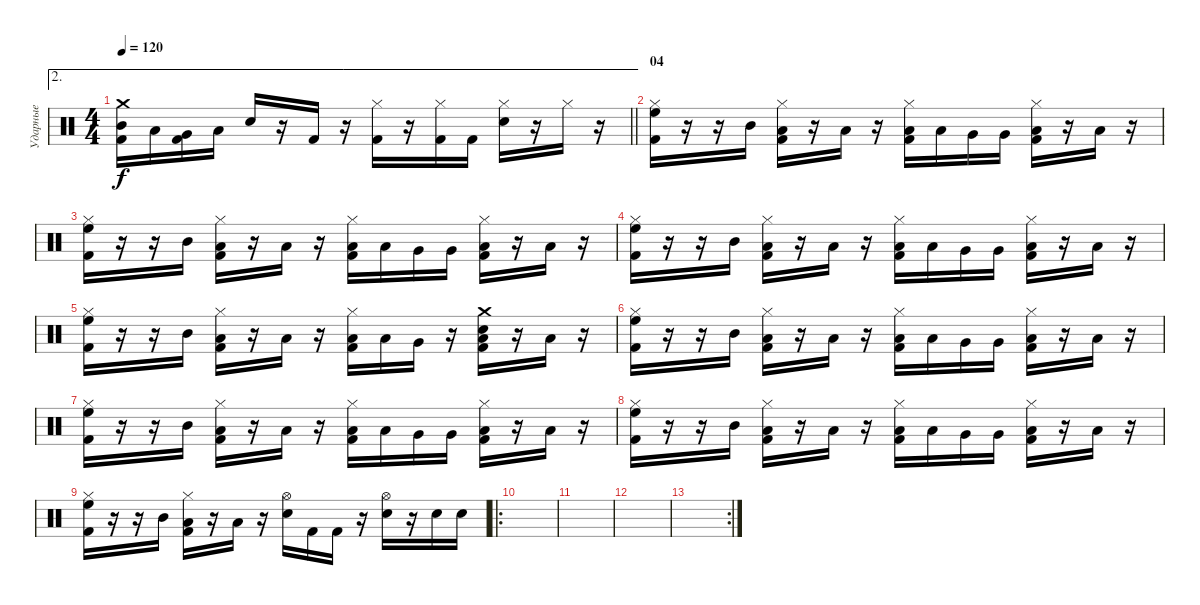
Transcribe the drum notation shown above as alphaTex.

\track ("Ударные" "Ударные") {instrument percussion}
\staff {score}
\articulation defaults
\ae 2
\ts (4 4)
\tempo 120
\clef neutral
\barLineRight lightlight
\ks c
("Crash medium (hit)" "Mid Tom (hit)" "Kick (hit) 2").16{dy f} "Low Tom (hit)".16 ("Very Low Tom (hit)" "Kick (hit) 2").16 "Low Floor Tom (hit)".16 "Electric Snare (hit)".16 r.16 "Kick (hit) 2".16 r.16 ("Hi-Hat (closed)" "Kick (hit) 2").16 r.16 ("Hi-Hat (closed)" "Kick (hit) 2").16 "Kick (hit) 2".16 ("Hi-Hat (closed)" "Electric Snare (hit)").16 r.16 "Hi-Hat (closed)".16 r.16 |
\section ("" "04")
("Hi-Hat (closed)" "High Floor Tom (hit)" "Kick (hit) 2").16 r.16 r.16 "Mid Tom (hit)".16 ("Hi-Hat (closed)" "Low Tom (hit)" "Kick (hit) 2").16 r.16 "Low Tom (hit)".16 r.16 ("Hi-Hat (closed)" "Low Tom (hit)" "Kick (hit) 2").16 "Low Tom (hit)".16 "Very Low Tom (hit)".16 "Very Low Tom (hit)".16 ("Hi-Hat (closed)" "Low Floor Tom (hit)" "Kick (hit) 2").16 r.16 "Low Floor Tom (hit)".16 r.16 |
("Hi-Hat (closed)" "High Floor Tom (hit)" "Kick (hit) 2").16 r.16 r.16 "Mid Tom (hit)".16 ("Hi-Hat (closed)" "Low Tom (hit)" "Kick (hit) 2").16 r.16 "Low Tom (hit)".16 r.16 ("Hi-Hat (closed)" "Low Tom (hit)" "Kick (hit) 2").16 "Low Tom (hit)".16 "Very Low Tom (hit)".16 "Very Low Tom (hit)".16 ("Hi-Hat (closed)" "Low Floor Tom (hit)" "Kick (hit) 2").16 r.16 "Low Floor Tom (hit)".16 r.16 |
("Hi-Hat (closed)" "High Floor Tom (hit)" "Kick (hit) 2").16 r.16 r.16 "Mid Tom (hit)".16 ("Hi-Hat (closed)" "Low Tom (hit)" "Kick (hit) 2").16 r.16 "Low Tom (hit)".16 r.16 ("Hi-Hat (closed)" "Low Tom (hit)" "Kick (hit) 2").16 "Low Tom (hit)".16 "Very Low Tom (hit)".16 "Very Low Tom (hit)".16 ("Hi-Hat (closed)" "Low Floor Tom (hit)" "Kick (hit) 2").16 r.16 "Low Floor Tom (hit)".16 r.16 |
("Hi-Hat (closed)" "High Floor Tom (hit)" "Kick (hit) 2").16 r.16 r.16 "Mid Tom (hit)".16 ("Hi-Hat (closed)" "Low Tom (hit)" "Kick (hit) 2").16 r.16 "Low Tom (hit)".16 r.16 ("Hi-Hat (closed)" "Low Tom (hit)" "Kick (hit) 2").16 "Low Tom (hit)".16 "Very Low Tom (hit)".16 r.16 ("Crash medium (hit)" "Low Floor Tom (hit)" "Electric Snare (hit)" "Kick (hit) 2").16 r.16 "Low Floor Tom (hit)".16 r.16 |
("Hi-Hat (closed)" "High Floor Tom (hit)" "Kick (hit) 2").16 r.16 r.16 "Mid Tom (hit)".16 ("Hi-Hat (closed)" "Low Tom (hit)" "Kick (hit) 2").16 r.16 "Low Tom (hit)".16 r.16 ("Hi-Hat (closed)" "Low Tom (hit)" "Kick (hit) 2").16 "Low Tom (hit)".16 "Very Low Tom (hit)".16 "Very Low Tom (hit)".16 ("Hi-Hat (closed)" "Low Floor Tom (hit)" "Kick (hit) 2").16 r.16 "Low Floor Tom (hit)".16 r.16 |
("Hi-Hat (closed)" "High Floor Tom (hit)" "Kick (hit) 2").16 r.16 r.16 "Mid Tom (hit)".16 ("Hi-Hat (closed)" "Low Tom (hit)" "Kick (hit) 2").16 r.16 "Low Tom (hit)".16 r.16 ("Hi-Hat (closed)" "Low Tom (hit)" "Kick (hit) 2").16 "Low Tom (hit)".16 "Very Low Tom (hit)".16 "Very Low Tom (hit)".16 ("Hi-Hat (closed)" "Low Floor Tom (hit)" "Kick (hit) 2").16 r.16 "Low Floor Tom (hit)".16 r.16 |
("Hi-Hat (closed)" "High Floor Tom (hit)" "Kick (hit) 2").16 r.16 r.16 "Mid Tom (hit)".16 ("Hi-Hat (closed)" "Low Tom (hit)" "Kick (hit) 2").16 r.16 "Low Tom (hit)".16 r.16 ("Hi-Hat (closed)" "Low Tom (hit)" "Kick (hit) 2").16 "Low Tom (hit)".16 "Very Low Tom (hit)".16 "Very Low Tom (hit)".16 ("Hi-Hat (closed)" "Low Floor Tom (hit)" "Kick (hit) 2").16 r.16 "Low Floor Tom (hit)".16 r.16 |
("Hi-Hat (closed)" "High Floor Tom (hit)" "Kick (hit) 2").16 r.16 r.16 "Mid Tom (hit)".16 ("Hi-Hat (closed)" "Low Tom (hit)" "Kick (hit) 2").16 r.16 "Low Tom (hit)".16 r.16 ("Hi-Hat (open)" "Electric Snare (hit)").16 "Kick (hit) 2".16 "Kick (hit) 2".16 r.16 ("Hi-Hat (open)" "Electric Snare (hit)").16 r.16 "Electric Snare (hit)".16 "Electric Snare (hit)".16 |
\ro
|
|
|
\rc 2
